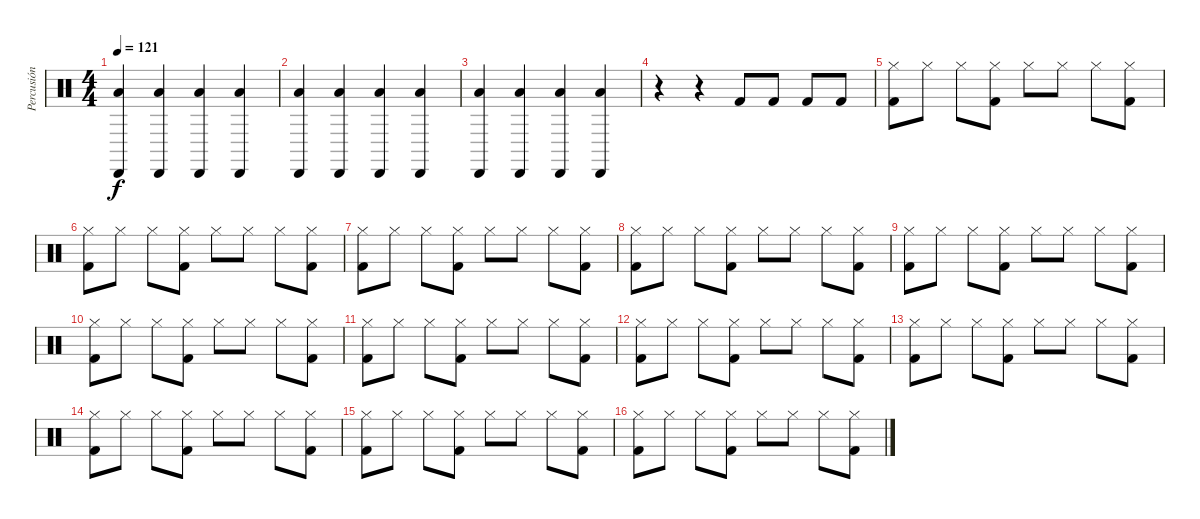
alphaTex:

\track ("Percusión" "Percusión") {instrument percussion}
\staff {score}
\articulation defaults
\ts (4 4)
\tempo 121
\clef neutral
\ks c
("Low Tom (hit)" "Cabasa (hit)").4{dy f} ("Low Tom (hit)" "Cabasa (hit)").4 ("Low Tom (hit)" "Cabasa (hit)").4 ("Low Tom (hit)" "Cabasa (hit)").4 |
("Low Tom (hit)" "Cabasa (hit)").4 ("Low Tom (hit)" "Cabasa (hit)").4 ("Low Tom (hit)" "Cabasa (hit)").4 ("Low Tom (hit)" "Cabasa (hit)").4 |
("Low Tom (hit)" "Cabasa (hit)").4 ("Low Tom (hit)" "Cabasa (hit)").4 ("Low Tom (hit)" "Cabasa (hit)").4 ("Low Tom (hit)" "Cabasa (hit)").4 |
r.4 r.4 "Kick (hit) 2".8 "Kick (hit) 2".8 "Kick (hit) 2".8 "Kick (hit) 2".8 |
("Kick (hit) 2" "Hi-Hat (closed)").8 "Hi-Hat (closed)".8 "Hi-Hat (closed)".8 ("Kick (hit) 2" "Hi-Hat (closed)").8 "Hi-Hat (closed)".8 "Hi-Hat (closed)".8 "Hi-Hat (closed)".8 ("Kick (hit) 2" "Hi-Hat (closed)").8 |
("Kick (hit) 2" "Hi-Hat (closed)").8 "Hi-Hat (closed)".8 "Hi-Hat (closed)".8 ("Kick (hit) 2" "Hi-Hat (closed)").8 "Hi-Hat (closed)".8 "Hi-Hat (closed)".8 "Hi-Hat (closed)".8 ("Kick (hit) 2" "Hi-Hat (closed)").8 |
("Kick (hit) 2" "Hi-Hat (closed)").8 "Hi-Hat (closed)".8 "Hi-Hat (closed)".8 ("Kick (hit) 2" "Hi-Hat (closed)").8 "Hi-Hat (closed)".8 "Hi-Hat (closed)".8 "Hi-Hat (closed)".8 ("Kick (hit) 2" "Hi-Hat (closed)").8 |
("Kick (hit) 2" "Hi-Hat (closed)").8 "Hi-Hat (closed)".8 "Hi-Hat (closed)".8 ("Kick (hit) 2" "Hi-Hat (closed)").8 "Hi-Hat (closed)".8 "Hi-Hat (closed)".8 "Hi-Hat (closed)".8 ("Kick (hit) 2" "Hi-Hat (closed)").8 |
("Kick (hit) 2" "Hi-Hat (closed)").8 "Hi-Hat (closed)".8 "Hi-Hat (closed)".8 ("Kick (hit) 2" "Hi-Hat (closed)").8 "Hi-Hat (closed)".8 "Hi-Hat (closed)".8 "Hi-Hat (closed)".8 ("Kick (hit) 2" "Hi-Hat (closed)").8 |
("Kick (hit) 2" "Hi-Hat (closed)").8 "Hi-Hat (closed)".8 "Hi-Hat (closed)".8 ("Kick (hit) 2" "Hi-Hat (closed)").8 "Hi-Hat (closed)".8 "Hi-Hat (closed)".8 "Hi-Hat (closed)".8 ("Kick (hit) 2" "Hi-Hat (closed)").8 |
("Kick (hit) 2" "Hi-Hat (closed)").8 "Hi-Hat (closed)".8 "Hi-Hat (closed)".8 ("Kick (hit) 2" "Hi-Hat (closed)").8 "Hi-Hat (closed)".8 "Hi-Hat (closed)".8 "Hi-Hat (closed)".8 ("Kick (hit) 2" "Hi-Hat (closed)").8 |
("Kick (hit) 2" "Hi-Hat (closed)").8 "Hi-Hat (closed)".8 "Hi-Hat (closed)".8 ("Kick (hit) 2" "Hi-Hat (closed)").8 "Hi-Hat (closed)".8 "Hi-Hat (closed)".8 "Hi-Hat (closed)".8 ("Kick (hit) 2" "Hi-Hat (closed)").8 |
("Kick (hit) 2" "Hi-Hat (closed)").8 "Hi-Hat (closed)".8 "Hi-Hat (closed)".8 ("Kick (hit) 2" "Hi-Hat (closed)").8 "Hi-Hat (closed)".8 "Hi-Hat (closed)".8 "Hi-Hat (closed)".8 ("Kick (hit) 2" "Hi-Hat (closed)").8 |
("Kick (hit) 2" "Hi-Hat (closed)").8 "Hi-Hat (closed)".8 "Hi-Hat (closed)".8 ("Kick (hit) 2" "Hi-Hat (closed)").8 "Hi-Hat (closed)".8 "Hi-Hat (closed)".8 "Hi-Hat (closed)".8 ("Kick (hit) 2" "Hi-Hat (closed)").8 |
("Kick (hit) 2" "Hi-Hat (closed)").8 "Hi-Hat (closed)".8 "Hi-Hat (closed)".8 ("Kick (hit) 2" "Hi-Hat (closed)").8 "Hi-Hat (closed)".8 "Hi-Hat (closed)".8 "Hi-Hat (closed)".8 ("Kick (hit) 2" "Hi-Hat (closed)").8 |
("Kick (hit) 2" "Hi-Hat (closed)").8 "Hi-Hat (closed)".8 "Hi-Hat (closed)".8 ("Kick (hit) 2" "Hi-Hat (closed)").8 "Hi-Hat (closed)".8 "Hi-Hat (closed)".8 "Hi-Hat (closed)".8 ("Kick (hit) 2" "Hi-Hat (closed)").8
